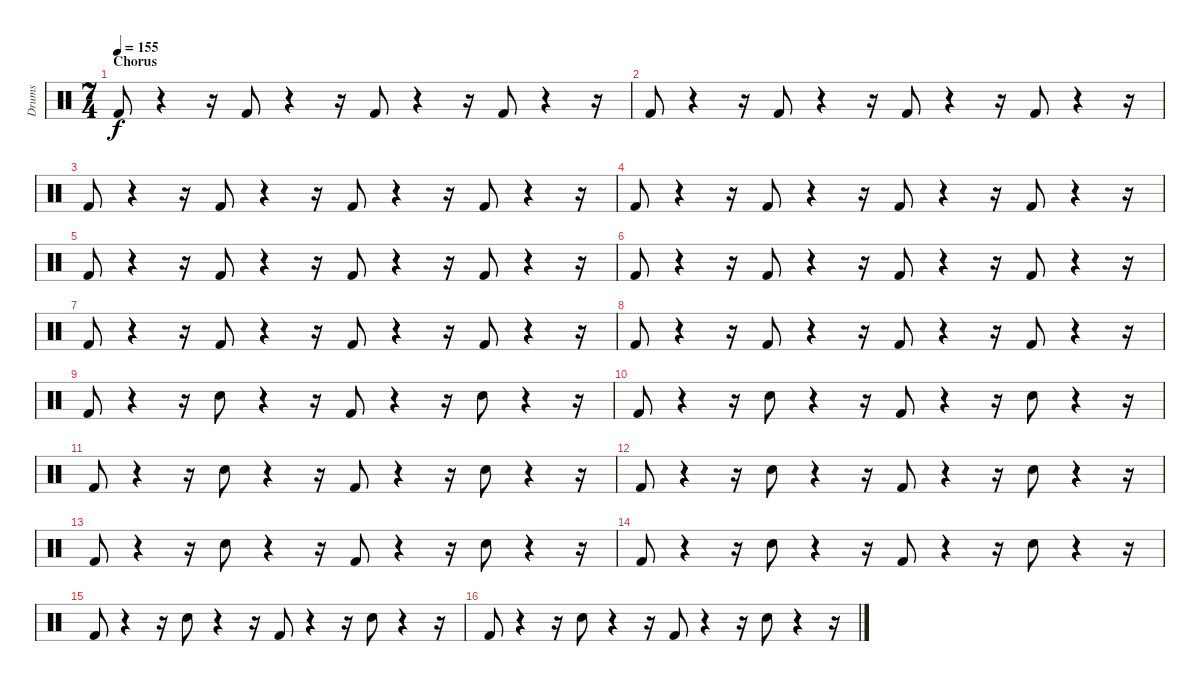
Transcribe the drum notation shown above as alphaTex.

\track ("Drums" "Drums") {instrument percussion}
\staff {score}
\articulation defaults
\ts (7 4)
\section ("" "Chorus")
\tempo 155
\clef neutral
\ks c "Kick (hit) 2".8{dy f}
r.4 r.16 "Kick (hit) 2".8 r.4 r.16 "Kick (hit) 2".8 r.4 r.16 "Kick (hit) 2".8 r.4 r.16 |
"Kick (hit) 2".8 r.4 r.16 "Kick (hit) 2".8 r.4 r.16 "Kick (hit) 2".8 r.4 r.16 "Kick (hit) 2".8 r.4 r.16 |
"Kick (hit) 2".8 r.4 r.16 "Kick (hit) 2".8 r.4 r.16 "Kick (hit) 2".8 r.4 r.16 "Kick (hit) 2".8 r.4 r.16 |
"Kick (hit) 2".8 r.4 r.16 "Kick (hit) 2".8 r.4 r.16 "Kick (hit) 2".8 r.4 r.16 "Kick (hit) 2".8 r.4 r.16 |
"Kick (hit) 2".8 r.4 r.16 "Kick (hit) 2".8 r.4 r.16 "Kick (hit) 2".8 r.4 r.16 "Kick (hit) 2".8 r.4 r.16 |
"Kick (hit) 2".8 r.4 r.16 "Kick (hit) 2".8 r.4 r.16 "Kick (hit) 2".8 r.4 r.16 "Kick (hit) 2".8 r.4 r.16 |
"Kick (hit) 2".8 r.4 r.16 "Kick (hit) 2".8 r.4 r.16 "Kick (hit) 2".8 r.4 r.16 "Kick (hit) 2".8 r.4 r.16 |
"Kick (hit) 2".8 r.4 r.16 "Kick (hit) 2".8 r.4 r.16 "Kick (hit) 2".8 r.4 r.16 "Kick (hit) 2".8 r.4 r.16 |
"Kick (hit) 2".8 r.4 r.16 "Electric Snare (hit)".8 r.4 r.16 "Kick (hit) 2".8 r.4 r.16 "Electric Snare (hit)".8 r.4 r.16 |
"Kick (hit) 2".8 r.4 r.16 "Electric Snare (hit)".8 r.4 r.16 "Kick (hit) 2".8 r.4 r.16 "Electric Snare (hit)".8 r.4 r.16 |
"Kick (hit) 2".8 r.4 r.16 "Electric Snare (hit)".8 r.4 r.16 "Kick (hit) 2".8 r.4 r.16 "Electric Snare (hit)".8 r.4 r.16 |
"Kick (hit) 2".8 r.4 r.16 "Electric Snare (hit)".8 r.4 r.16 "Kick (hit) 2".8 r.4 r.16 "Electric Snare (hit)".8 r.4 r.16 |
"Kick (hit) 2".8 r.4 r.16 "Electric Snare (hit)".8 r.4 r.16 "Kick (hit) 2".8 r.4 r.16 "Electric Snare (hit)".8 r.4 r.16 |
"Kick (hit) 2".8{volume 9} r.4 r.16 "Electric Snare (hit)".8 r.4 r.16 "Kick (hit) 2".8 r.4 r.16 "Electric Snare (hit)".8 r.4 r.16 |
"Kick (hit) 2".8 r.4 r.16 "Electric Snare (hit)".8 r.4 r.16 "Kick (hit) 2".8 r.4 r.16 "Electric Snare (hit)".8 r.4 r.16 |
"Kick (hit) 2".8 r.4 r.16 "Electric Snare (hit)".8 r.4 r.16 "Kick (hit) 2".8 r.4 r.16 "Electric Snare (hit)".8 r.4 r.16
